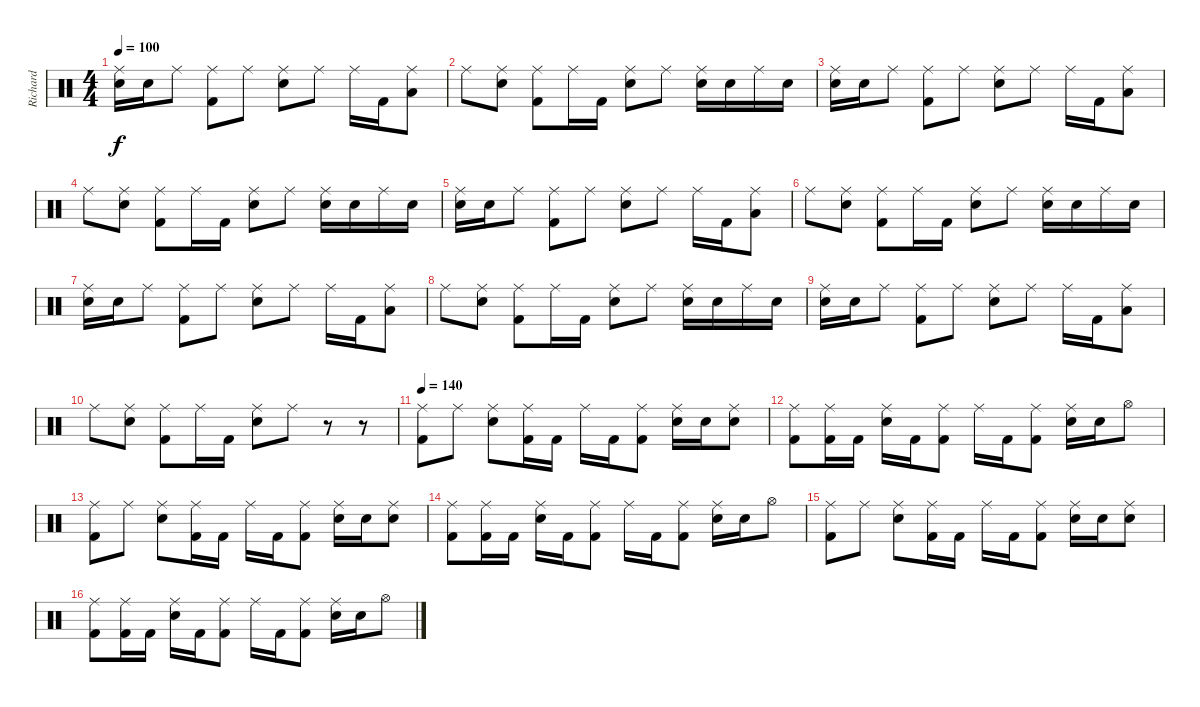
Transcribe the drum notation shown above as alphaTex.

\track ("Richard" "Richard") {instrument percussion}
\staff {score}
\articulation defaults
\ts (4 4)
\tempo 100
\clef neutral
\ks c
("Ride (middle)" "Snare (hit) 2").16{dy f} "Snare (hit) 2".16 "Ride (middle)".8 ("Ride (middle)" "Kick (hit) 2").8 "Ride (middle)".8 ("Snare (hit) 2" "Ride (middle)").8 "Ride (middle)".8 "Ride (middle)".16 "Kick (hit) 2".16 ("Low Floor Tom (hit)" "Ride (middle)").8 |
"Ride (middle)".8 ("Snare (hit) 2" "Ride (middle)").8 ("Ride (middle)" "Kick (hit) 2").8 "Ride (middle)".16 "Kick (hit) 2".16 ("Ride (middle)" "Snare (hit) 2").8 "Ride (middle)".8 ("Snare (hit) 2" "Ride (middle)").16 "Snare (hit) 2".16 "Ride (middle)".16 "Snare (hit) 2".16 |
("Ride (middle)" "Snare (hit) 2").16 "Snare (hit) 2".16 "Ride (middle)".8 ("Ride (middle)" "Kick (hit) 2").8 "Ride (middle)".8 ("Snare (hit) 2" "Ride (middle)").8 "Ride (middle)".8 "Ride (middle)".16 "Kick (hit) 2".16 ("Low Floor Tom (hit)" "Ride (middle)").8 |
"Ride (middle)".8 ("Snare (hit) 2" "Ride (middle)").8 ("Ride (middle)" "Kick (hit) 2").8 "Ride (middle)".16 "Kick (hit) 2".16 ("Ride (middle)" "Snare (hit) 2").8 "Ride (middle)".8 ("Snare (hit) 2" "Ride (middle)").16 "Snare (hit) 2".16 "Ride (middle)".16 "Snare (hit) 2".16 |
("Ride (middle)" "Snare (hit) 2").16 "Snare (hit) 2".16 "Ride (middle)".8 ("Ride (middle)" "Kick (hit) 2").8 "Ride (middle)".8 ("Snare (hit) 2" "Ride (middle)").8 "Ride (middle)".8 "Ride (middle)".16 "Kick (hit) 2".16 ("Low Floor Tom (hit)" "Ride (middle)").8 |
"Ride (middle)".8 ("Snare (hit) 2" "Ride (middle)").8 ("Ride (middle)" "Kick (hit) 2").8 "Ride (middle)".16 "Kick (hit) 2".16 ("Ride (middle)" "Snare (hit) 2").8 "Ride (middle)".8 ("Snare (hit) 2" "Ride (middle)").16 "Snare (hit) 2".16 "Ride (middle)".16 "Snare (hit) 2".16 |
("Ride (middle)" "Snare (hit) 2").16 "Snare (hit) 2".16 "Ride (middle)".8 ("Ride (middle)" "Kick (hit) 2").8 "Ride (middle)".8 ("Snare (hit) 2" "Ride (middle)").8 "Ride (middle)".8 "Ride (middle)".16 "Kick (hit) 2".16 ("Low Floor Tom (hit)" "Ride (middle)").8 |
"Ride (middle)".8 ("Snare (hit) 2" "Ride (middle)").8 ("Ride (middle)" "Kick (hit) 2").8 "Ride (middle)".16 "Kick (hit) 2".16 ("Ride (middle)" "Snare (hit) 2").8 "Ride (middle)".8 ("Snare (hit) 2" "Ride (middle)").16 "Snare (hit) 2".16 "Ride (middle)".16 "Snare (hit) 2".16 |
("Ride (middle)" "Snare (hit) 2").16 "Snare (hit) 2".16 "Ride (middle)".8 ("Ride (middle)" "Kick (hit) 2").8 "Ride (middle)".8 ("Snare (hit) 2" "Ride (middle)").8 "Ride (middle)".8 "Ride (middle)".16 "Kick (hit) 2".16 ("Low Floor Tom (hit)" "Ride (middle)").8 |
"Ride (middle)".8 ("Snare (hit) 2" "Ride (middle)").8 ("Ride (middle)" "Kick (hit) 2").8 "Ride (middle)".16 "Kick (hit) 2".16 ("Ride (middle)" "Snare (hit) 2").8 "Ride (middle)".8 r.8 r.8 |
\tempo 140
("Ride (middle)" "Kick (hit) 2").8 "Ride (middle)".8 ("Ride (middle)" "Snare (hit) 2").8 ("Ride (middle)" "Kick (hit) 2").16 "Kick (hit) 2".16 "Ride (middle)".16 "Kick (hit) 2".16 ("Ride (middle)" "Kick (hit) 2").8 ("Ride (middle)" "Snare (hit) 2").16 "Snare (hit) 2".16 ("Ride (middle)" "Snare (hit) 2").8 |
("Ride (middle)" "Kick (hit) 2").8 ("Ride (middle)" "Kick (hit) 2").16 "Kick (hit) 2".16 ("Ride (middle)" "Snare (hit) 2").16 "Kick (hit) 2".16 ("Ride (middle)" "Kick (hit) 2").8 "Ride (middle)".16 "Kick (hit) 2".16 ("Ride (middle)" "Kick (hit) 2").8 ("Ride (middle)" "Snare (hit) 2").16 "Snare (hit) 2".16 "Hi-Hat (open)".8 |
("Ride (middle)" "Kick (hit) 2").8 "Ride (middle)".8 ("Ride (middle)" "Snare (hit) 2").8 ("Ride (middle)" "Kick (hit) 2").16 "Kick (hit) 2".16 "Ride (middle)".16 "Kick (hit) 2".16 ("Ride (middle)" "Kick (hit) 2").8 ("Ride (middle)" "Snare (hit) 2").16 "Snare (hit) 2".16 ("Ride (middle)" "Snare (hit) 2").8 |
("Ride (middle)" "Kick (hit) 2").8 ("Ride (middle)" "Kick (hit) 2").16 "Kick (hit) 2".16 ("Ride (middle)" "Snare (hit) 2").16 "Kick (hit) 2".16 ("Ride (middle)" "Kick (hit) 2").8 "Ride (middle)".16 "Kick (hit) 2".16 ("Ride (middle)" "Kick (hit) 2").8 ("Ride (middle)" "Snare (hit) 2").16 "Snare (hit) 2".16 "Hi-Hat (open)".8 |
("Ride (middle)" "Kick (hit) 2").8 "Ride (middle)".8 ("Ride (middle)" "Snare (hit) 2").8 ("Ride (middle)" "Kick (hit) 2").16 "Kick (hit) 2".16 "Ride (middle)".16 "Kick (hit) 2".16 ("Ride (middle)" "Kick (hit) 2").8 ("Ride (middle)" "Snare (hit) 2").16 "Snare (hit) 2".16 ("Ride (middle)" "Snare (hit) 2").8 |
("Ride (middle)" "Kick (hit) 2").8 ("Ride (middle)" "Kick (hit) 2").16 "Kick (hit) 2".16 ("Ride (middle)" "Snare (hit) 2").16 "Kick (hit) 2".16 ("Ride (middle)" "Kick (hit) 2").8 "Ride (middle)".16 "Kick (hit) 2".16 ("Ride (middle)" "Kick (hit) 2").8 ("Ride (middle)" "Snare (hit) 2").16 "Snare (hit) 2".16 "Hi-Hat (open)".8
